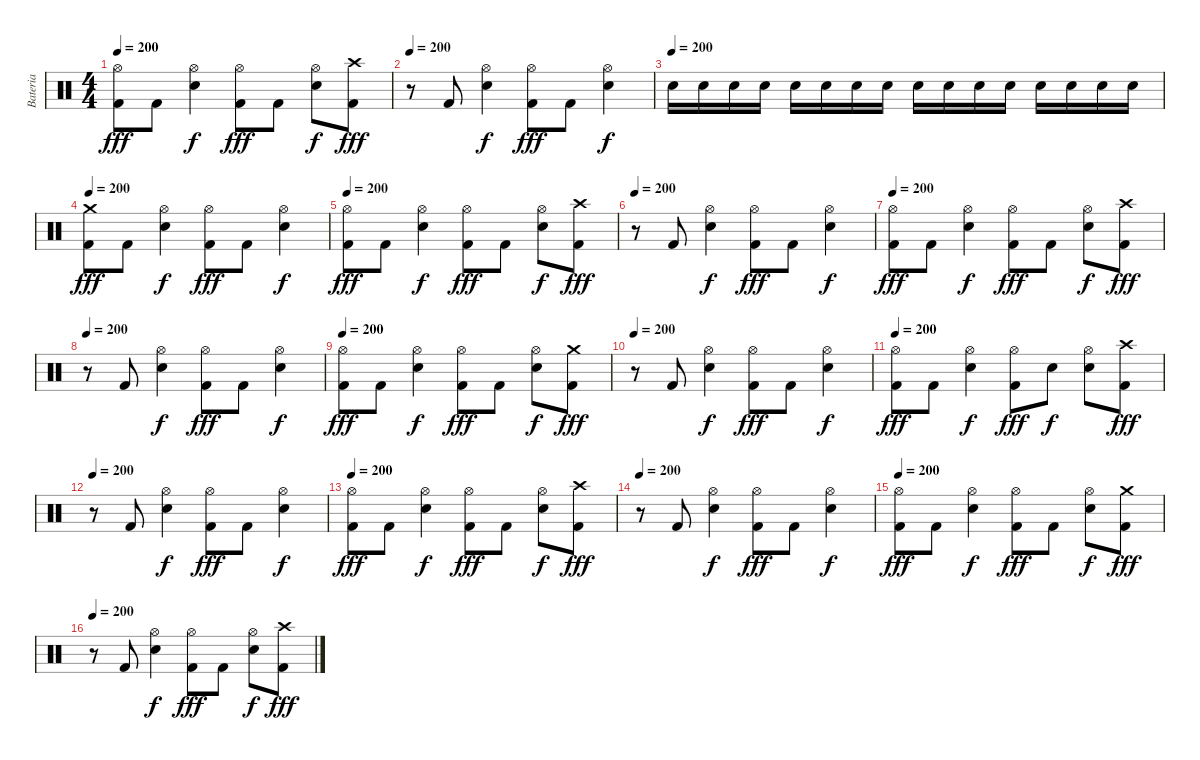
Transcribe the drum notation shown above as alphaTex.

\track ("Bateria" "Bateria") {instrument percussion}
\staff {score}
\articulation defaults
\ts (4 4)
\tempo 200
\clef neutral
\ks c
("Hi-Hat (open)" "Kick (hit) 2").8{dy fff} "Kick (hit) 2".8 ("Hi-Hat (open)" "Electric Snare (hit)").4{dy f} ("Hi-Hat (open)" "Kick (hit) 2").8{dy fff} "Kick (hit) 2".8 ("Hi-Hat (open)" "Electric Snare (hit)").8{dy f} ("Crash high (hit)" "Kick (hit) 2").8{dy fff} |
\tempo 200
r.8 "Kick (hit) 2".8 ("Hi-Hat (open)" "Electric Snare (hit)").4{dy f} ("Hi-Hat (open)" "Kick (hit) 2").8{dy fff} "Kick (hit) 2".8 ("Hi-Hat (open)" "Electric Snare (hit)").4{dy f} |
\tempo (200)
"Electric Snare (hit)".16 "Electric Snare (hit)".16 "Electric Snare (hit)".16 "Electric Snare (hit)".16 "Electric Snare (hit)".16 "Electric Snare (hit)".16 "Electric Snare (hit)".16 "Electric Snare (hit)".16 "Electric Snare (hit)".16 "Electric Snare (hit)".16 "Electric Snare (hit)".16 "Electric Snare (hit)".16 "Electric Snare (hit)".16 "Electric Snare (hit)".16 "Electric Snare (hit)".16 "Electric Snare (hit)".16 |
\tempo 200
("Crash medium (hit)" "Kick (hit) 2").8{dy fff} "Kick (hit) 2".8 ("Hi-Hat (open)" "Electric Snare (hit)").4{dy f} ("Hi-Hat (open)" "Kick (hit) 2").8{dy fff} "Kick (hit) 2".8 ("Hi-Hat (open)" "Electric Snare (hit)").4{dy f} |
\tempo 200
("Hi-Hat (open)" "Kick (hit) 2").8{dy fff} "Kick (hit) 2".8 ("Hi-Hat (open)" "Electric Snare (hit)").4{dy f} ("Hi-Hat (open)" "Kick (hit) 2").8{dy fff} "Kick (hit) 2".8 ("Hi-Hat (open)" "Electric Snare (hit)").8{dy f} ("Crash high (hit)" "Kick (hit) 2").8{dy fff} |
\tempo 200
r.8 "Kick (hit) 2".8 ("Hi-Hat (open)" "Electric Snare (hit)").4{dy f} ("Hi-Hat (open)" "Kick (hit) 2").8{dy fff} "Kick (hit) 2".8 ("Hi-Hat (open)" "Electric Snare (hit)").4{dy f} |
\tempo 200
("Hi-Hat (open)" "Kick (hit) 2").8{dy fff} "Kick (hit) 2".8 ("Hi-Hat (open)" "Electric Snare (hit)").4{dy f} ("Hi-Hat (open)" "Kick (hit) 2").8{dy fff} "Kick (hit) 2".8 ("Hi-Hat (open)" "Electric Snare (hit)").8{dy f} ("Crash high (hit)" "Kick (hit) 2").8{dy fff} |
\tempo 200
r.8 "Kick (hit) 2".8 ("Hi-Hat (open)" "Electric Snare (hit)").4{dy f} ("Hi-Hat (open)" "Kick (hit) 2").8{dy fff} "Kick (hit) 2".8 ("Hi-Hat (open)" "Electric Snare (hit)").4{dy f} |
\tempo 200
("Hi-Hat (open)" "Kick (hit) 2").8{dy fff} "Kick (hit) 2".8 ("Hi-Hat (open)" "Electric Snare (hit)").4{dy f} ("Hi-Hat (open)" "Kick (hit) 2").8{dy fff} "Kick (hit) 2".8 ("Hi-Hat (open)" "Electric Snare (hit)").8{dy f} ("Crash medium (hit)" "Kick (hit) 2").8{dy fff} |
\tempo 200
r.8 "Kick (hit) 2".8 ("Hi-Hat (open)" "Electric Snare (hit)").4{dy f} ("Hi-Hat (open)" "Kick (hit) 2").8{dy fff} "Kick (hit) 2".8 ("Hi-Hat (open)" "Electric Snare (hit)").4{dy f} |
\tempo 200
("Hi-Hat (open)" "Kick (hit) 2").8{dy fff} "Kick (hit) 2".8 ("Hi-Hat (open)" "Electric Snare (hit)").4{dy f} ("Hi-Hat (open)" "Kick (hit) 2").8{dy fff} "Electric Snare (hit)".8{dy f} ("Hi-Hat (open)" "Electric Snare (hit)").8 ("Crash high (hit)" "Kick (hit) 2").8{dy fff} |
\tempo 200
r.8 "Kick (hit) 2".8 ("Hi-Hat (open)" "Electric Snare (hit)").4{dy f} ("Hi-Hat (open)" "Kick (hit) 2").8{dy fff} "Kick (hit) 2".8 ("Hi-Hat (open)" "Electric Snare (hit)").4{dy f} |
\tempo 200
("Hi-Hat (open)" "Kick (hit) 2").8{dy fff} "Kick (hit) 2".8 ("Hi-Hat (open)" "Electric Snare (hit)").4{dy f} ("Hi-Hat (open)" "Kick (hit) 2").8{dy fff} "Kick (hit) 2".8 ("Hi-Hat (open)" "Electric Snare (hit)").8{dy f} ("Crash high (hit)" "Kick (hit) 2").8{dy fff} |
\tempo 200
r.8 "Kick (hit) 2".8 ("Hi-Hat (open)" "Electric Snare (hit)").4{dy f} ("Hi-Hat (open)" "Kick (hit) 2").8{dy fff} "Kick (hit) 2".8 ("Hi-Hat (open)" "Electric Snare (hit)").4{dy f} |
\tempo 200
("Hi-Hat (open)" "Kick (hit) 2").8{dy fff} "Kick (hit) 2".8 ("Hi-Hat (open)" "Electric Snare (hit)").4{dy f} ("Hi-Hat (open)" "Kick (hit) 2").8{dy fff} "Kick (hit) 2".8 ("Hi-Hat (open)" "Electric Snare (hit)").8{dy f} ("Crash medium (hit)" "Kick (hit) 2").8{dy fff} |
\tempo 200
r.8 "Kick (hit) 2".8 ("Hi-Hat (open)" "Electric Snare (hit)").4{dy f} ("Hi-Hat (open)" "Kick (hit) 2").8{dy fff} "Kick (hit) 2".8 ("Hi-Hat (open)" "Electric Snare (hit)").8{dy f} ("Crash high (hit)" "Kick (hit) 2").8{dy fff}
